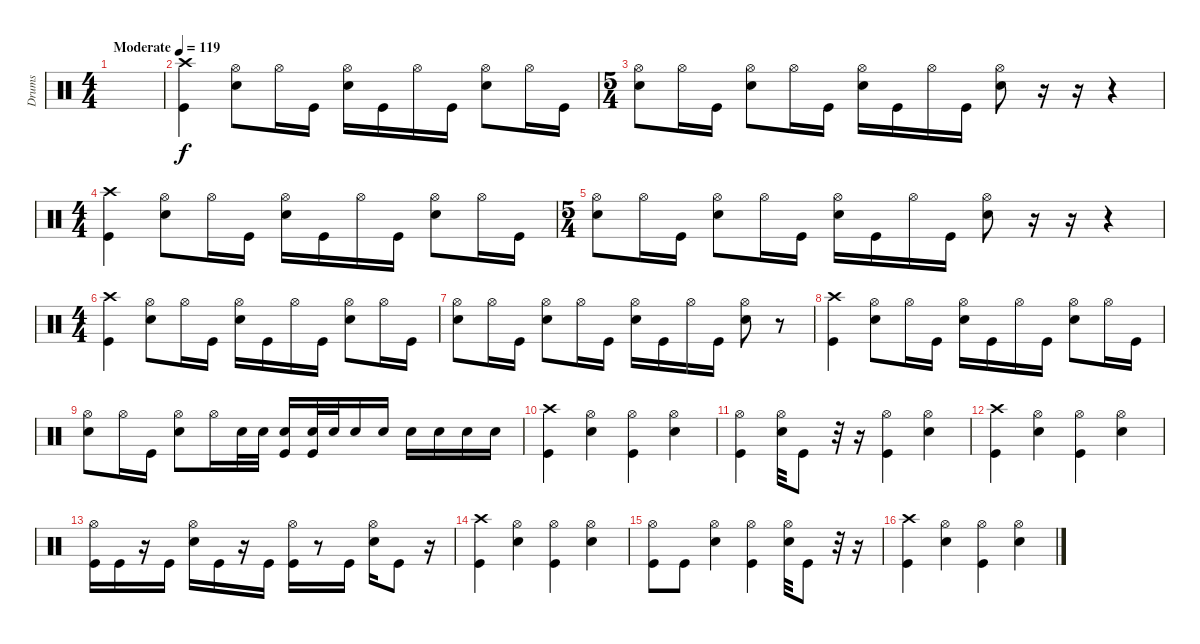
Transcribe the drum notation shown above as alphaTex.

\track ("Drums" "Drums") {instrument percussion}
\staff {score}
\articulation defaults
\ts (4 4)
\tempo (119 "Moderate")
\clef neutral
\ks c
|
("Crash high (hit)" "Kick (hit)").4 ("Hi-Hat (open)" "Snare (hit) 2").8 "Hi-Hat (open)".16 "Kick (hit)".16 ("Hi-Hat (open)" "Snare (hit) 2").16 "Kick (hit)".16 "Hi-Hat (open)".16 "Kick (hit)".16 ("Hi-Hat (open)" "Snare (hit) 2").8 "Hi-Hat (open)".16 "Kick (hit)".16 |
\ts (5 4)
("Hi-Hat (open)" "Snare (hit) 2").8 "Hi-Hat (open)".16 "Kick (hit)".16 ("Hi-Hat (open)" "Snare (hit) 2").8 "Hi-Hat (open)".16 "Kick (hit)".16 ("Hi-Hat (open)" "Snare (hit) 2").16 "Kick (hit)".16 "Hi-Hat (open)".16 "Kick (hit)".16 ("Hi-Hat (open)" "Snare (hit) 2").8 r.16 r.16 r.4 |
\ts (4 4)
("Crash high (hit)" "Kick (hit)").4 ("Hi-Hat (open)" "Snare (hit) 2").8 "Hi-Hat (open)".16 "Kick (hit)".16 ("Hi-Hat (open)" "Snare (hit) 2").16 "Kick (hit)".16 "Hi-Hat (open)".16 "Kick (hit)".16 ("Hi-Hat (open)" "Snare (hit) 2").8 "Hi-Hat (open)".16 "Kick (hit)".16 |
\ts (5 4)
("Hi-Hat (open)" "Snare (hit) 2").8 "Hi-Hat (open)".16 "Kick (hit)".16 ("Hi-Hat (open)" "Snare (hit) 2").8 "Hi-Hat (open)".16 "Kick (hit)".16 ("Hi-Hat (open)" "Snare (hit) 2").16 "Kick (hit)".16 "Hi-Hat (open)".16 "Kick (hit)".16 ("Hi-Hat (open)" "Snare (hit) 2").8 r.16 r.16 r.4 |
\ts (4 4)
("Crash high (hit)" "Kick (hit)").4 ("Hi-Hat (open)" "Snare (hit) 2").8 "Hi-Hat (open)".16 "Kick (hit)".16 ("Hi-Hat (open)" "Snare (hit) 2").16 "Kick (hit)".16 "Hi-Hat (open)".16 "Kick (hit)".16 ("Hi-Hat (open)" "Snare (hit) 2").8 "Hi-Hat (open)".16 "Kick (hit)".16 |
("Hi-Hat (open)" "Snare (hit) 2").8 "Hi-Hat (open)".16 "Kick (hit)".16 ("Hi-Hat (open)" "Snare (hit) 2").8 "Hi-Hat (open)".16 "Kick (hit)".16 ("Hi-Hat (open)" "Snare (hit) 2").16 "Kick (hit)".16 "Hi-Hat (open)".16 "Kick (hit)".16 ("Hi-Hat (open)" "Snare (hit) 2").8 r.8 |
("Crash high (hit)" "Kick (hit)").4 ("Hi-Hat (open)" "Snare (hit) 2").8 "Hi-Hat (open)".16 "Kick (hit)".16 ("Hi-Hat (open)" "Snare (hit) 2").16 "Kick (hit)".16 "Hi-Hat (open)".16 "Kick (hit)".16 ("Hi-Hat (open)" "Snare (hit) 2").8 "Hi-Hat (open)".16 "Kick (hit)".16 |
("Hi-Hat (open)" "Snare (hit) 2").8 "Hi-Hat (open)".16 "Kick (hit)".16 ("Hi-Hat (open)" "Snare (hit) 2").8 "Hi-Hat (open)".16 "Snare (hit) 2".32 "Snare (hit) 2".32 ("Snare (hit) 2" "Kick (hit)").16 ("Snare (hit) 2" "Kick (hit)").32 "Snare (hit) 2".32 "Snare (hit) 2".16 "Snare (hit) 2".16 "Snare (hit) 2".16 "Snare (hit) 2".16 "Snare (hit) 2".16 "Snare (hit) 2".16 |
("Crash high (hit)" "Kick (hit)").4 ("Hi-Hat (open)" "Snare (hit) 2").4 ("Hi-Hat (open)" "Kick (hit)").4 ("Hi-Hat (open)" "Snare (hit) 2").4 |
("Hi-Hat (open)" "Kick (hit)").4 ("Hi-Hat (open)" "Snare (hit) 2").32 "Kick (hit)".8 r.32 r.16 ("Hi-Hat (open)" "Kick (hit)").4 ("Hi-Hat (open)" "Snare (hit) 2").4 |
("Crash high (hit)" "Kick (hit)").4 ("Hi-Hat (open)" "Snare (hit) 2").4 ("Hi-Hat (open)" "Kick (hit)").4 ("Hi-Hat (open)" "Snare (hit) 2").4 |
("Hi-Hat (open)" "Kick (hit)").16 "Kick (hit)".16 r.16 "Kick (hit)".16 ("Hi-Hat (open)" "Snare (hit) 2").16 "Kick (hit)".16 r.16 "Kick (hit)".16 ("Hi-Hat (open)" "Kick (hit)").16 r.8 "Kick (hit)".16 ("Hi-Hat (open)" "Snare (hit) 2").16 "Kick (hit)".8 r.16 |
("Crash high (hit)" "Kick (hit)").4 ("Hi-Hat (open)" "Snare (hit) 2").4 ("Hi-Hat (open)" "Kick (hit)").4 ("Hi-Hat (open)" "Snare (hit) 2").4 |
("Hi-Hat (open)" "Kick (hit)").8 "Kick (hit)".8 ("Hi-Hat (open)" "Snare (hit) 2").4 ("Hi-Hat (open)" "Kick (hit)").4 ("Hi-Hat (open)" "Snare (hit) 2").32 "Kick (hit)".8 r.32 r.16 |
("Crash high (hit)" "Kick (hit)").4 ("Hi-Hat (open)" "Snare (hit) 2").4 ("Hi-Hat (open)" "Kick (hit)").4 ("Hi-Hat (open)" "Snare (hit) 2").4
